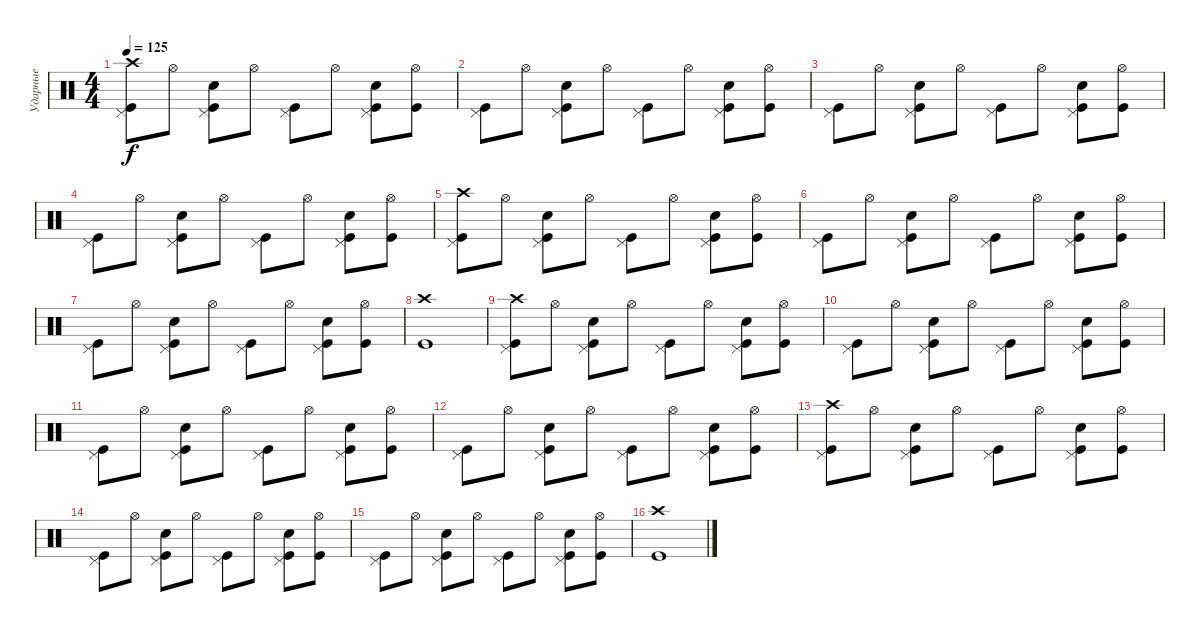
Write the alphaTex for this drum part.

\track ("Ударные" "Ударные") {instrument percussion}
\staff {score}
\articulation defaults
\ts (4 4)
\tempo 125
\clef neutral
\ks c
("Kick (hit)" "Pedal Hi-Hat (hit)" "Crash high (hit)").8{dy f} "Hi-Hat (open)".8 ("Kick (hit)" "Pedal Hi-Hat (hit)" "Hand Clap (hit)").8 "Hi-Hat (open)".8 ("Kick (hit)" "Pedal Hi-Hat (hit)").8 "Hi-Hat (open)".8 ("Kick (hit)" "Pedal Hi-Hat (hit)" "Hand Clap (hit)").8 ("Kick (hit)" "Hi-Hat (open)").8 |
("Kick (hit)" "Pedal Hi-Hat (hit)").8 "Hi-Hat (open)".8 ("Kick (hit)" "Pedal Hi-Hat (hit)" "Hand Clap (hit)").8 "Hi-Hat (open)".8 ("Kick (hit)" "Pedal Hi-Hat (hit)").8 "Hi-Hat (open)".8 ("Kick (hit)" "Pedal Hi-Hat (hit)" "Hand Clap (hit)").8 ("Kick (hit)" "Hi-Hat (open)").8 |
("Kick (hit)" "Pedal Hi-Hat (hit)").8 "Hi-Hat (open)".8 ("Kick (hit)" "Pedal Hi-Hat (hit)" "Hand Clap (hit)").8 "Hi-Hat (open)".8 ("Kick (hit)" "Pedal Hi-Hat (hit)").8 "Hi-Hat (open)".8 ("Kick (hit)" "Pedal Hi-Hat (hit)" "Hand Clap (hit)").8 ("Kick (hit)" "Hi-Hat (open)").8 |
("Kick (hit)" "Pedal Hi-Hat (hit)").8 "Hi-Hat (open)".8 ("Kick (hit)" "Pedal Hi-Hat (hit)" "Hand Clap (hit)").8 "Hi-Hat (open)".8 ("Kick (hit)" "Pedal Hi-Hat (hit)").8 "Hi-Hat (open)".8 ("Kick (hit)" "Pedal Hi-Hat (hit)" "Hand Clap (hit)").8 ("Kick (hit)" "Hi-Hat (open)").8 |
("Kick (hit)" "Pedal Hi-Hat (hit)" "Crash high (hit)").8 "Hi-Hat (open)".8 ("Kick (hit)" "Pedal Hi-Hat (hit)" "Hand Clap (hit)").8 "Hi-Hat (open)".8 ("Kick (hit)" "Pedal Hi-Hat (hit)").8 "Hi-Hat (open)".8 ("Kick (hit)" "Pedal Hi-Hat (hit)" "Hand Clap (hit)").8 ("Kick (hit)" "Hi-Hat (open)").8 |
("Kick (hit)" "Pedal Hi-Hat (hit)").8 "Hi-Hat (open)".8 ("Kick (hit)" "Pedal Hi-Hat (hit)" "Hand Clap (hit)").8 "Hi-Hat (open)".8 ("Kick (hit)" "Pedal Hi-Hat (hit)").8 "Hi-Hat (open)".8 ("Kick (hit)" "Pedal Hi-Hat (hit)" "Hand Clap (hit)").8 ("Kick (hit)" "Hi-Hat (open)").8 |
("Kick (hit)" "Pedal Hi-Hat (hit)").8 "Hi-Hat (open)".8 ("Kick (hit)" "Pedal Hi-Hat (hit)" "Hand Clap (hit)").8 "Hi-Hat (open)".8 ("Kick (hit)" "Pedal Hi-Hat (hit)").8 "Hi-Hat (open)".8 ("Kick (hit)" "Pedal Hi-Hat (hit)" "Hand Clap (hit)").8 ("Kick (hit)" "Hi-Hat (open)").8 |
("Kick (hit)" "Crash high (hit)").1 |
("Kick (hit)" "Pedal Hi-Hat (hit)" "Crash high (hit)").8 "Hi-Hat (open)".8 ("Kick (hit)" "Pedal Hi-Hat (hit)" "Hand Clap (hit)").8 "Hi-Hat (open)".8 ("Kick (hit)" "Pedal Hi-Hat (hit)").8 "Hi-Hat (open)".8 ("Kick (hit)" "Pedal Hi-Hat (hit)" "Hand Clap (hit)").8 ("Kick (hit)" "Hi-Hat (open)").8 |
("Kick (hit)" "Pedal Hi-Hat (hit)").8 "Hi-Hat (open)".8 ("Kick (hit)" "Pedal Hi-Hat (hit)" "Hand Clap (hit)").8 "Hi-Hat (open)".8 ("Kick (hit)" "Pedal Hi-Hat (hit)").8 "Hi-Hat (open)".8 ("Kick (hit)" "Pedal Hi-Hat (hit)" "Hand Clap (hit)").8 ("Kick (hit)" "Hi-Hat (open)").8 |
("Kick (hit)" "Pedal Hi-Hat (hit)").8 "Hi-Hat (open)".8 ("Kick (hit)" "Pedal Hi-Hat (hit)" "Hand Clap (hit)").8 "Hi-Hat (open)".8 ("Kick (hit)" "Pedal Hi-Hat (hit)").8 "Hi-Hat (open)".8 ("Kick (hit)" "Pedal Hi-Hat (hit)" "Hand Clap (hit)").8 ("Kick (hit)" "Hi-Hat (open)").8 |
("Kick (hit)" "Pedal Hi-Hat (hit)").8 "Hi-Hat (open)".8 ("Kick (hit)" "Pedal Hi-Hat (hit)" "Hand Clap (hit)").8 "Hi-Hat (open)".8 ("Kick (hit)" "Pedal Hi-Hat (hit)").8 "Hi-Hat (open)".8 ("Kick (hit)" "Pedal Hi-Hat (hit)" "Hand Clap (hit)").8 ("Kick (hit)" "Hi-Hat (open)").8 |
("Kick (hit)" "Pedal Hi-Hat (hit)" "Crash high (hit)").8 "Hi-Hat (open)".8 ("Kick (hit)" "Pedal Hi-Hat (hit)" "Hand Clap (hit)").8 "Hi-Hat (open)".8 ("Kick (hit)" "Pedal Hi-Hat (hit)").8 "Hi-Hat (open)".8 ("Kick (hit)" "Pedal Hi-Hat (hit)" "Hand Clap (hit)").8 ("Kick (hit)" "Hi-Hat (open)").8 |
("Kick (hit)" "Pedal Hi-Hat (hit)").8 "Hi-Hat (open)".8 ("Kick (hit)" "Pedal Hi-Hat (hit)" "Hand Clap (hit)").8 "Hi-Hat (open)".8 ("Kick (hit)" "Pedal Hi-Hat (hit)").8 "Hi-Hat (open)".8 ("Kick (hit)" "Pedal Hi-Hat (hit)" "Hand Clap (hit)").8 ("Kick (hit)" "Hi-Hat (open)").8 |
("Kick (hit)" "Pedal Hi-Hat (hit)").8 "Hi-Hat (open)".8 ("Kick (hit)" "Pedal Hi-Hat (hit)" "Hand Clap (hit)").8 "Hi-Hat (open)".8 ("Kick (hit)" "Pedal Hi-Hat (hit)").8 "Hi-Hat (open)".8 ("Kick (hit)" "Pedal Hi-Hat (hit)" "Hand Clap (hit)").8 ("Kick (hit)" "Hi-Hat (open)").8 |
("Kick (hit)" "Crash high (hit)").1
